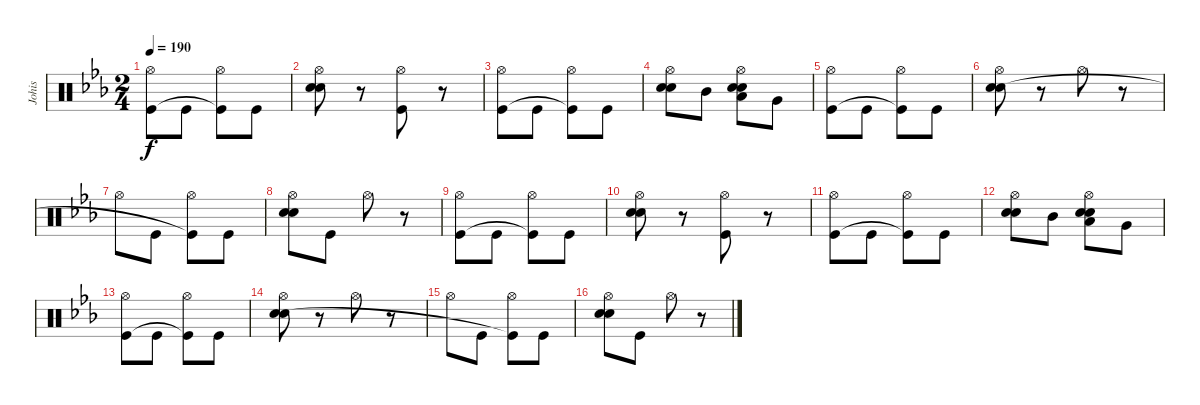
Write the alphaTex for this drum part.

\track ("Johis" "Johis") {instrument percussion}
\staff {score}
\articulation defaults
\ts (2 4)
\tempo 190
\clef neutral
\ks eb
("Hi-Hat (open)" "Kick (hit)").8{dy f} "Kick (hit)".8 ("Hi-Hat (open)" "Kick (hit)"{t}).8 "Kick (hit)".8 |
("Hi-Hat (open)" "Snare (hit) 2" "Electric Snare (hit)").8 r.8 ("Hi-Hat (open)" "Kick (hit)").8 r.8 |
("Hi-Hat (open)" "Kick (hit)").8 "Kick (hit)".8 ("Hi-Hat (open)" "Kick (hit)"{t}).8 "Kick (hit)".8 |
("Hi-Hat (open)" "Snare (hit) 2" "Electric Snare (hit)").8 "Mid Tom (hit)".8 ("Hi-Hat (open)" "Snare (hit) 2" "Low Tom (hit)" "Electric Snare (hit)").8 "Very Low Tom (hit)".8 |
("Hi-Hat (open)" "Kick (hit)").8 "Kick (hit)".8 ("Hi-Hat (open)" "Kick (hit)"{t}).8 "Kick (hit)".8 |
("Hi-Hat (open)" "Snare (hit) 2" "Electric Snare (hit)").8 r.8 "Hi-Hat (open)".8 r.8 |
"Hi-Hat (open)".8 "Kick (hit)".8 ("Hi-Hat (open)" "Kick (hit)"{t}).8 "Kick (hit)".8 |
("Hi-Hat (open)" "Snare (hit) 2" "Electric Snare (hit)").8 "Kick (hit)".8 "Hi-Hat (open)".8 r.8 |
("Hi-Hat (open)" "Kick (hit)").8 "Kick (hit)".8 ("Hi-Hat (open)" "Kick (hit)"{t}).8 "Kick (hit)".8 |
("Hi-Hat (open)" "Snare (hit) 2" "Electric Snare (hit)").8 r.8 ("Hi-Hat (open)" "Kick (hit)").8 r.8 |
("Hi-Hat (open)" "Kick (hit)").8 "Kick (hit)".8 ("Hi-Hat (open)" "Kick (hit)"{t}).8 "Kick (hit)".8 |
("Hi-Hat (open)" "Snare (hit) 2" "Electric Snare (hit)").8 "Mid Tom (hit)".8 ("Hi-Hat (open)" "Snare (hit) 2" "Low Tom (hit)" "Electric Snare (hit)").8 "Very Low Tom (hit)".8 |
("Hi-Hat (open)" "Kick (hit)").8 "Kick (hit)".8 ("Hi-Hat (open)" "Kick (hit)"{t}).8 "Kick (hit)".8 |
("Hi-Hat (open)" "Snare (hit) 2" "Electric Snare (hit)").8 r.8 "Hi-Hat (open)".8 r.8 |
"Hi-Hat (open)".8 "Kick (hit)".8 ("Hi-Hat (open)" "Kick (hit)"{t}).8 "Kick (hit)".8 |
("Hi-Hat (open)" "Snare (hit) 2" "Electric Snare (hit)").8 "Kick (hit)".8 "Hi-Hat (open)".8 r.8
